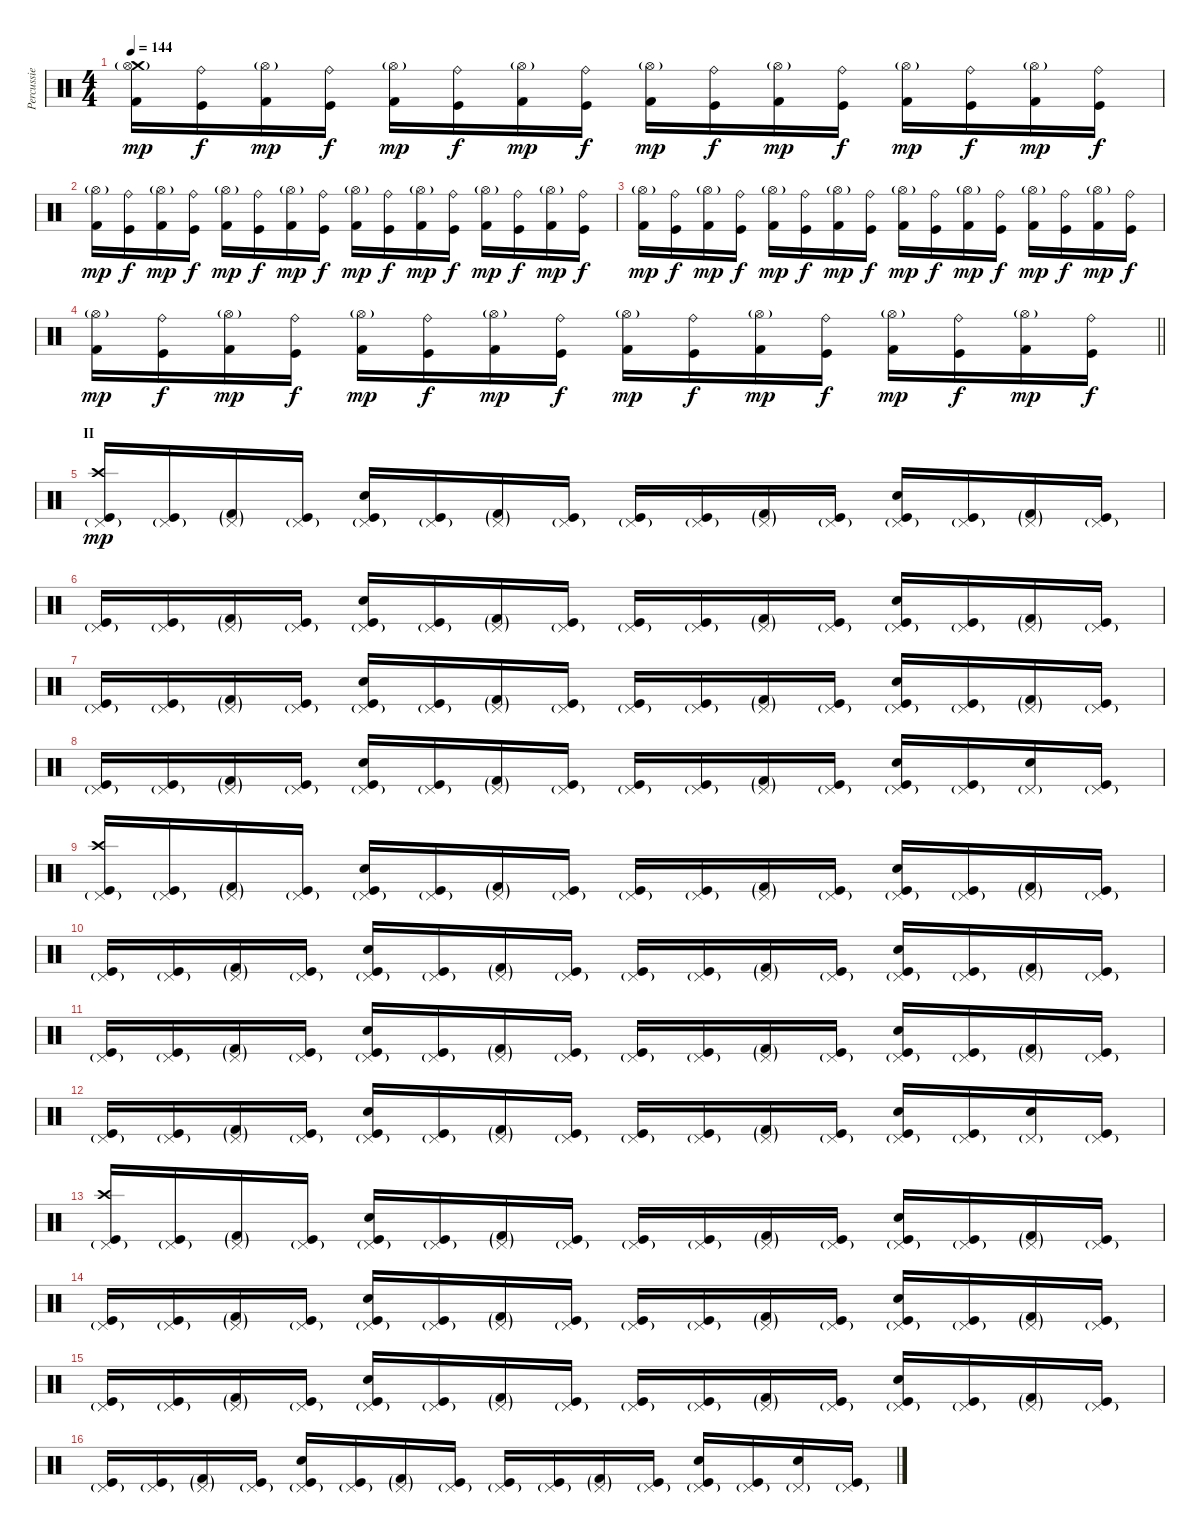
\track ("Percussie" "Percussie") {instrument percussion}
\staff {score}
\articulation defaults
\ts (4 4)
\tempo 144
\clef neutral
\ks c
("Crash medium (hit)" "Kick (hit) 2" "Hi-Hat (open)"{g}).16{dy mp} ("Ride (bell)" "Kick (hit)").16{dy f} ("Kick (hit) 2" "Hi-Hat (open)"{g}).16{dy mp} ("Ride (bell)" "Kick (hit)").16{dy f} ("Kick (hit) 2" "Hi-Hat (open)"{g}).16{dy mp} ("Ride (bell)" "Kick (hit)").16{dy f} ("Kick (hit) 2" "Hi-Hat (open)"{g}).16{dy mp} ("Ride (bell)" "Kick (hit)").16{dy f} ("Kick (hit) 2" "Hi-Hat (open)"{g}).16{dy mp} ("Ride (bell)" "Kick (hit)").16{dy f} ("Kick (hit) 2" "Hi-Hat (open)"{g}).16{dy mp} ("Ride (bell)" "Kick (hit)").16{dy f} ("Kick (hit) 2" "Hi-Hat (open)"{g}).16{dy mp} ("Ride (bell)" "Kick (hit)").16{dy f} ("Kick (hit) 2" "Hi-Hat (open)"{g}).16{dy mp} ("Ride (bell)" "Kick (hit)").16{dy f} |
("Kick (hit) 2" "Hi-Hat (open)"{g}).16{dy mp} ("Ride (bell)" "Kick (hit)").16{dy f} ("Kick (hit) 2" "Hi-Hat (open)"{g}).16{dy mp} ("Ride (bell)" "Kick (hit)").16{dy f} ("Kick (hit) 2" "Hi-Hat (open)"{g}).16{dy mp} ("Ride (bell)" "Kick (hit)").16{dy f} ("Kick (hit) 2" "Hi-Hat (open)"{g}).16{dy mp} ("Ride (bell)" "Kick (hit)").16{dy f} ("Kick (hit) 2" "Hi-Hat (open)"{g}).16{dy mp} ("Ride (bell)" "Kick (hit)").16{dy f} ("Kick (hit) 2" "Hi-Hat (open)"{g}).16{dy mp} ("Ride (bell)" "Kick (hit)").16{dy f} ("Kick (hit) 2" "Hi-Hat (open)"{g}).16{dy mp} ("Ride (bell)" "Kick (hit)").16{dy f} ("Kick (hit) 2" "Hi-Hat (open)"{g}).16{dy mp} ("Ride (bell)" "Kick (hit)").16{dy f} |
("Kick (hit) 2" "Hi-Hat (open)"{g}).16{dy mp} ("Ride (bell)" "Kick (hit)").16{dy f} ("Kick (hit) 2" "Hi-Hat (open)"{g}).16{dy mp} ("Ride (bell)" "Kick (hit)").16{dy f} ("Kick (hit) 2" "Hi-Hat (open)"{g}).16{dy mp} ("Ride (bell)" "Kick (hit)").16{dy f} ("Kick (hit) 2" "Hi-Hat (open)"{g}).16{dy mp} ("Ride (bell)" "Kick (hit)").16{dy f} ("Kick (hit) 2" "Hi-Hat (open)"{g}).16{dy mp} ("Ride (bell)" "Kick (hit)").16{dy f} ("Kick (hit) 2" "Hi-Hat (open)"{g}).16{dy mp} ("Ride (bell)" "Kick (hit)").16{dy f} ("Kick (hit) 2" "Hi-Hat (open)"{g}).16{dy mp} ("Ride (bell)" "Kick (hit)").16{dy f} ("Kick (hit) 2" "Hi-Hat (open)"{g}).16{dy mp} ("Ride (bell)" "Kick (hit)").16{dy f} |
\barLineRight lightlight
("Kick (hit) 2" "Hi-Hat (open)"{g}).16{dy mp} ("Ride (bell)" "Kick (hit)").16{dy f} ("Kick (hit) 2" "Hi-Hat (open)"{g}).16{dy mp} ("Ride (bell)" "Kick (hit)").16{dy f} ("Kick (hit) 2" "Hi-Hat (open)"{g}).16{dy mp} ("Ride (bell)" "Kick (hit)").16{dy f} ("Kick (hit) 2" "Hi-Hat (open)"{g}).16{dy mp} ("Ride (bell)" "Kick (hit)").16{dy f} ("Kick (hit) 2" "Hi-Hat (open)"{g}).16{dy mp} ("Ride (bell)" "Kick (hit)").16{dy f} ("Kick (hit) 2" "Hi-Hat (open)"{g}).16{dy mp} ("Ride (bell)" "Kick (hit)").16{dy f} ("Kick (hit) 2" "Hi-Hat (open)"{g}).16{dy mp} ("Ride (bell)" "Kick (hit)").16{dy f} ("Kick (hit) 2" "Hi-Hat (open)"{g}).16{dy mp} ("Ride (bell)" "Kick (hit)").16{dy f} |
\section ("" "II")
("Crash high (hit)" "Kick (hit)" "Pedal Hi-Hat (hit)"{g}).16{dy mp} ("Kick (hit)" "Pedal Hi-Hat (hit)"{g}).16 ("Kick (hit) 2"{g} "Pedal Hi-Hat (hit)"{g}).16 ("Kick (hit)" "Pedal Hi-Hat (hit)"{g}).16 ("Snare (hit) 2" "Kick (hit)" "Pedal Hi-Hat (hit)"{g}).16 ("Kick (hit)" "Pedal Hi-Hat (hit)"{g}).16 ("Kick (hit) 2"{g} "Pedal Hi-Hat (hit)"{g}).16 ("Kick (hit)" "Pedal Hi-Hat (hit)"{g}).16 ("Kick (hit)" "Pedal Hi-Hat (hit)"{g}).16 ("Kick (hit)" "Pedal Hi-Hat (hit)"{g}).16 ("Kick (hit) 2"{g} "Pedal Hi-Hat (hit)"{g}).16 ("Kick (hit)" "Pedal Hi-Hat (hit)"{g}).16 ("Snare (hit) 2" "Kick (hit)" "Pedal Hi-Hat (hit)"{g}).16 ("Kick (hit)" "Pedal Hi-Hat (hit)"{g}).16 ("Kick (hit) 2"{g} "Pedal Hi-Hat (hit)"{g}).16 ("Kick (hit)" "Pedal Hi-Hat (hit)"{g}).16 |
("Kick (hit)" "Pedal Hi-Hat (hit)"{g}).16 ("Kick (hit)" "Pedal Hi-Hat (hit)"{g}).16 ("Kick (hit) 2"{g} "Pedal Hi-Hat (hit)"{g}).16 ("Kick (hit)" "Pedal Hi-Hat (hit)"{g}).16 ("Snare (hit) 2" "Kick (hit)" "Pedal Hi-Hat (hit)"{g}).16 ("Kick (hit)" "Pedal Hi-Hat (hit)"{g}).16 ("Kick (hit) 2"{g} "Pedal Hi-Hat (hit)"{g}).16 ("Kick (hit)" "Pedal Hi-Hat (hit)"{g}).16 ("Kick (hit)" "Pedal Hi-Hat (hit)"{g}).16 ("Kick (hit)" "Pedal Hi-Hat (hit)"{g}).16 ("Kick (hit) 2"{g} "Pedal Hi-Hat (hit)"{g}).16 ("Kick (hit)" "Pedal Hi-Hat (hit)"{g}).16 ("Snare (hit) 2" "Kick (hit)" "Pedal Hi-Hat (hit)"{g}).16 ("Kick (hit)" "Pedal Hi-Hat (hit)"{g}).16 ("Kick (hit) 2"{g} "Pedal Hi-Hat (hit)"{g}).16 ("Kick (hit)" "Pedal Hi-Hat (hit)"{g}).16 |
("Kick (hit)" "Pedal Hi-Hat (hit)"{g}).16 ("Kick (hit)" "Pedal Hi-Hat (hit)"{g}).16 ("Kick (hit) 2"{g} "Pedal Hi-Hat (hit)"{g}).16 ("Kick (hit)" "Pedal Hi-Hat (hit)"{g}).16 ("Snare (hit) 2" "Kick (hit)" "Pedal Hi-Hat (hit)"{g}).16 ("Kick (hit)" "Pedal Hi-Hat (hit)"{g}).16 ("Kick (hit) 2"{g} "Pedal Hi-Hat (hit)"{g}).16 ("Kick (hit)" "Pedal Hi-Hat (hit)"{g}).16 ("Kick (hit)" "Pedal Hi-Hat (hit)"{g}).16 ("Kick (hit)" "Pedal Hi-Hat (hit)"{g}).16 ("Kick (hit) 2"{g} "Pedal Hi-Hat (hit)"{g}).16 ("Kick (hit)" "Pedal Hi-Hat (hit)"{g}).16 ("Snare (hit) 2" "Kick (hit)" "Pedal Hi-Hat (hit)"{g}).16 ("Kick (hit)" "Pedal Hi-Hat (hit)"{g}).16 ("Kick (hit) 2"{g} "Pedal Hi-Hat (hit)"{g}).16 ("Kick (hit)" "Pedal Hi-Hat (hit)"{g}).16 |
("Kick (hit)" "Pedal Hi-Hat (hit)"{g}).16 ("Kick (hit)" "Pedal Hi-Hat (hit)"{g}).16 ("Kick (hit) 2"{g} "Pedal Hi-Hat (hit)"{g}).16 ("Kick (hit)" "Pedal Hi-Hat (hit)"{g}).16 ("Snare (hit) 2" "Kick (hit)" "Pedal Hi-Hat (hit)"{g}).16 ("Kick (hit)" "Pedal Hi-Hat (hit)"{g}).16 ("Kick (hit) 2"{g} "Pedal Hi-Hat (hit)"{g}).16 ("Kick (hit)" "Pedal Hi-Hat (hit)"{g}).16 ("Kick (hit)" "Pedal Hi-Hat (hit)"{g}).16 ("Kick (hit)" "Pedal Hi-Hat (hit)"{g}).16 ("Kick (hit) 2"{g} "Pedal Hi-Hat (hit)"{g}).16 ("Kick (hit)" "Pedal Hi-Hat (hit)"{g}).16 ("Snare (hit) 2" "Kick (hit)" "Pedal Hi-Hat (hit)"{g}).16 ("Kick (hit)" "Pedal Hi-Hat (hit)"{g}).16 ("Snare (hit) 2" "Pedal Hi-Hat (hit)"{g}).16 ("Kick (hit)" "Pedal Hi-Hat (hit)"{g}).16 |
("Crash high (hit)" "Kick (hit)" "Pedal Hi-Hat (hit)"{g}).16 ("Kick (hit)" "Pedal Hi-Hat (hit)"{g}).16 ("Kick (hit) 2"{g} "Pedal Hi-Hat (hit)"{g}).16 ("Kick (hit)" "Pedal Hi-Hat (hit)"{g}).16 ("Snare (hit) 2" "Kick (hit)" "Pedal Hi-Hat (hit)"{g}).16 ("Kick (hit)" "Pedal Hi-Hat (hit)"{g}).16 ("Kick (hit) 2"{g} "Pedal Hi-Hat (hit)"{g}).16 ("Kick (hit)" "Pedal Hi-Hat (hit)"{g}).16 ("Kick (hit)" "Pedal Hi-Hat (hit)"{g}).16 ("Kick (hit)" "Pedal Hi-Hat (hit)"{g}).16 ("Kick (hit) 2"{g} "Pedal Hi-Hat (hit)"{g}).16 ("Kick (hit)" "Pedal Hi-Hat (hit)"{g}).16 ("Snare (hit) 2" "Kick (hit)" "Pedal Hi-Hat (hit)"{g}).16 ("Kick (hit)" "Pedal Hi-Hat (hit)"{g}).16 ("Kick (hit) 2"{g} "Pedal Hi-Hat (hit)"{g}).16 ("Kick (hit)" "Pedal Hi-Hat (hit)"{g}).16 |
("Kick (hit)" "Pedal Hi-Hat (hit)"{g}).16 ("Kick (hit)" "Pedal Hi-Hat (hit)"{g}).16 ("Kick (hit) 2"{g} "Pedal Hi-Hat (hit)"{g}).16 ("Kick (hit)" "Pedal Hi-Hat (hit)"{g}).16 ("Snare (hit) 2" "Kick (hit)" "Pedal Hi-Hat (hit)"{g}).16 ("Kick (hit)" "Pedal Hi-Hat (hit)"{g}).16 ("Kick (hit) 2"{g} "Pedal Hi-Hat (hit)"{g}).16 ("Kick (hit)" "Pedal Hi-Hat (hit)"{g}).16 ("Kick (hit)" "Pedal Hi-Hat (hit)"{g}).16 ("Kick (hit)" "Pedal Hi-Hat (hit)"{g}).16 ("Kick (hit) 2"{g} "Pedal Hi-Hat (hit)"{g}).16 ("Kick (hit)" "Pedal Hi-Hat (hit)"{g}).16 ("Snare (hit) 2" "Kick (hit)" "Pedal Hi-Hat (hit)"{g}).16 ("Kick (hit)" "Pedal Hi-Hat (hit)"{g}).16 ("Kick (hit) 2"{g} "Pedal Hi-Hat (hit)"{g}).16 ("Kick (hit)" "Pedal Hi-Hat (hit)"{g}).16 |
("Kick (hit)" "Pedal Hi-Hat (hit)"{g}).16 ("Kick (hit)" "Pedal Hi-Hat (hit)"{g}).16 ("Kick (hit) 2"{g} "Pedal Hi-Hat (hit)"{g}).16 ("Kick (hit)" "Pedal Hi-Hat (hit)"{g}).16 ("Snare (hit) 2" "Kick (hit)" "Pedal Hi-Hat (hit)"{g}).16 ("Kick (hit)" "Pedal Hi-Hat (hit)"{g}).16 ("Kick (hit) 2"{g} "Pedal Hi-Hat (hit)"{g}).16 ("Kick (hit)" "Pedal Hi-Hat (hit)"{g}).16 ("Kick (hit)" "Pedal Hi-Hat (hit)"{g}).16 ("Kick (hit)" "Pedal Hi-Hat (hit)"{g}).16 ("Kick (hit) 2"{g} "Pedal Hi-Hat (hit)"{g}).16 ("Kick (hit)" "Pedal Hi-Hat (hit)"{g}).16 ("Snare (hit) 2" "Kick (hit)" "Pedal Hi-Hat (hit)"{g}).16 ("Kick (hit)" "Pedal Hi-Hat (hit)"{g}).16 ("Kick (hit) 2"{g} "Pedal Hi-Hat (hit)"{g}).16 ("Kick (hit)" "Pedal Hi-Hat (hit)"{g}).16 |
("Kick (hit)" "Pedal Hi-Hat (hit)"{g}).16 ("Kick (hit)" "Pedal Hi-Hat (hit)"{g}).16 ("Kick (hit) 2"{g} "Pedal Hi-Hat (hit)"{g}).16 ("Kick (hit)" "Pedal Hi-Hat (hit)"{g}).16 ("Snare (hit) 2" "Kick (hit)" "Pedal Hi-Hat (hit)"{g}).16 ("Kick (hit)" "Pedal Hi-Hat (hit)"{g}).16 ("Kick (hit) 2"{g} "Pedal Hi-Hat (hit)"{g}).16 ("Kick (hit)" "Pedal Hi-Hat (hit)"{g}).16 ("Kick (hit)" "Pedal Hi-Hat (hit)"{g}).16 ("Kick (hit)" "Pedal Hi-Hat (hit)"{g}).16 ("Kick (hit) 2"{g} "Pedal Hi-Hat (hit)"{g}).16 ("Kick (hit)" "Pedal Hi-Hat (hit)"{g}).16 ("Snare (hit) 2" "Kick (hit)" "Pedal Hi-Hat (hit)"{g}).16 ("Kick (hit)" "Pedal Hi-Hat (hit)"{g}).16 ("Snare (hit) 2" "Pedal Hi-Hat (hit)"{g}).16 ("Kick (hit)" "Pedal Hi-Hat (hit)"{g}).16 |
("Crash high (hit)" "Kick (hit)" "Pedal Hi-Hat (hit)"{g}).16 ("Kick (hit)" "Pedal Hi-Hat (hit)"{g}).16 ("Kick (hit) 2"{g} "Pedal Hi-Hat (hit)"{g}).16 ("Kick (hit)" "Pedal Hi-Hat (hit)"{g}).16 ("Snare (hit) 2" "Kick (hit)" "Pedal Hi-Hat (hit)"{g}).16 ("Kick (hit)" "Pedal Hi-Hat (hit)"{g}).16 ("Kick (hit) 2"{g} "Pedal Hi-Hat (hit)"{g}).16 ("Kick (hit)" "Pedal Hi-Hat (hit)"{g}).16 ("Kick (hit)" "Pedal Hi-Hat (hit)"{g}).16 ("Kick (hit)" "Pedal Hi-Hat (hit)"{g}).16 ("Kick (hit) 2"{g} "Pedal Hi-Hat (hit)"{g}).16 ("Kick (hit)" "Pedal Hi-Hat (hit)"{g}).16 ("Snare (hit) 2" "Kick (hit)" "Pedal Hi-Hat (hit)"{g}).16 ("Kick (hit)" "Pedal Hi-Hat (hit)"{g}).16 ("Kick (hit) 2"{g} "Pedal Hi-Hat (hit)"{g}).16 ("Kick (hit)" "Pedal Hi-Hat (hit)"{g}).16 |
("Kick (hit)" "Pedal Hi-Hat (hit)"{g}).16 ("Kick (hit)" "Pedal Hi-Hat (hit)"{g}).16 ("Kick (hit) 2"{g} "Pedal Hi-Hat (hit)"{g}).16 ("Kick (hit)" "Pedal Hi-Hat (hit)"{g}).16 ("Snare (hit) 2" "Kick (hit)" "Pedal Hi-Hat (hit)"{g}).16 ("Kick (hit)" "Pedal Hi-Hat (hit)"{g}).16 ("Kick (hit) 2"{g} "Pedal Hi-Hat (hit)"{g}).16 ("Kick (hit)" "Pedal Hi-Hat (hit)"{g}).16 ("Kick (hit)" "Pedal Hi-Hat (hit)"{g}).16 ("Kick (hit)" "Pedal Hi-Hat (hit)"{g}).16 ("Kick (hit) 2"{g} "Pedal Hi-Hat (hit)"{g}).16 ("Kick (hit)" "Pedal Hi-Hat (hit)"{g}).16 ("Snare (hit) 2" "Kick (hit)" "Pedal Hi-Hat (hit)"{g}).16 ("Kick (hit)" "Pedal Hi-Hat (hit)"{g}).16 ("Kick (hit) 2"{g} "Pedal Hi-Hat (hit)"{g}).16 ("Kick (hit)" "Pedal Hi-Hat (hit)"{g}).16 |
("Kick (hit)" "Pedal Hi-Hat (hit)"{g}).16 ("Kick (hit)" "Pedal Hi-Hat (hit)"{g}).16 ("Kick (hit) 2"{g} "Pedal Hi-Hat (hit)"{g}).16 ("Kick (hit)" "Pedal Hi-Hat (hit)"{g}).16 ("Snare (hit) 2" "Kick (hit)" "Pedal Hi-Hat (hit)"{g}).16 ("Kick (hit)" "Pedal Hi-Hat (hit)"{g}).16 ("Kick (hit) 2"{g} "Pedal Hi-Hat (hit)"{g}).16 ("Kick (hit)" "Pedal Hi-Hat (hit)"{g}).16 ("Kick (hit)" "Pedal Hi-Hat (hit)"{g}).16 ("Kick (hit)" "Pedal Hi-Hat (hit)"{g}).16 ("Kick (hit) 2"{g} "Pedal Hi-Hat (hit)"{g}).16 ("Kick (hit)" "Pedal Hi-Hat (hit)"{g}).16 ("Snare (hit) 2" "Kick (hit)" "Pedal Hi-Hat (hit)"{g}).16 ("Kick (hit)" "Pedal Hi-Hat (hit)"{g}).16 ("Kick (hit) 2"{g} "Pedal Hi-Hat (hit)"{g}).16 ("Kick (hit)" "Pedal Hi-Hat (hit)"{g}).16 |
("Kick (hit)" "Pedal Hi-Hat (hit)"{g}).16 ("Kick (hit)" "Pedal Hi-Hat (hit)"{g}).16 ("Kick (hit) 2"{g} "Pedal Hi-Hat (hit)"{g}).16 ("Kick (hit)" "Pedal Hi-Hat (hit)"{g}).16 ("Snare (hit) 2" "Kick (hit)" "Pedal Hi-Hat (hit)"{g}).16 ("Kick (hit)" "Pedal Hi-Hat (hit)"{g}).16 ("Kick (hit) 2"{g} "Pedal Hi-Hat (hit)"{g}).16 ("Kick (hit)" "Pedal Hi-Hat (hit)"{g}).16 ("Kick (hit)" "Pedal Hi-Hat (hit)"{g}).16 ("Kick (hit)" "Pedal Hi-Hat (hit)"{g}).16 ("Kick (hit) 2"{g} "Pedal Hi-Hat (hit)"{g}).16 ("Kick (hit)" "Pedal Hi-Hat (hit)"{g}).16 ("Snare (hit) 2" "Kick (hit)" "Pedal Hi-Hat (hit)"{g}).16 ("Kick (hit)" "Pedal Hi-Hat (hit)"{g}).16 ("Snare (hit) 2" "Pedal Hi-Hat (hit)"{g}).16 ("Kick (hit)" "Pedal Hi-Hat (hit)"{g}).16
